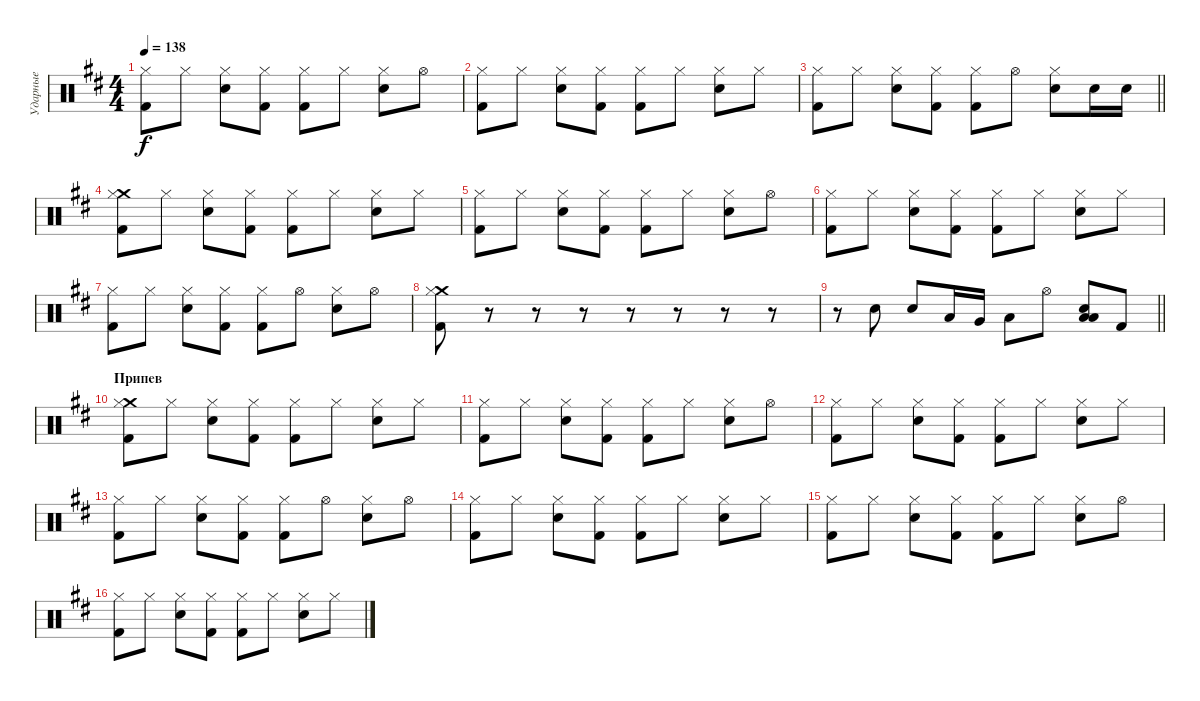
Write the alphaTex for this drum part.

\track ("Ударные" "Ударные") {instrument percussion}
\staff {score}
\articulation defaults
\ts (4 4)
\tempo 138
\clef neutral
\ks bminor
("Kick (hit) 2" "Hi-Hat (closed)").8{dy f} "Hi-Hat (closed)".8 ("Electric Snare (hit)" "Hi-Hat (closed)").8 ("Kick (hit) 2" "Hi-Hat (closed)").8 ("Kick (hit) 2" "Hi-Hat (closed)").8 "Hi-Hat (closed)".8 ("Electric Snare (hit)" "Hi-Hat (closed)").8 "Hi-Hat (open)".8 |
("Kick (hit) 2" "Hi-Hat (closed)").8 "Hi-Hat (closed)".8 ("Electric Snare (hit)" "Hi-Hat (closed)").8 ("Kick (hit) 2" "Hi-Hat (closed)").8 ("Kick (hit) 2" "Hi-Hat (closed)").8 "Hi-Hat (closed)".8 ("Electric Snare (hit)" "Hi-Hat (closed)").8 "Hi-Hat (closed)".8 |
\barLineRight lightlight
("Kick (hit) 2" "Hi-Hat (closed)").8 "Hi-Hat (closed)".8 ("Electric Snare (hit)" "Hi-Hat (closed)").8 ("Kick (hit) 2" "Hi-Hat (closed)").8 ("Kick (hit) 2" "Hi-Hat (closed)").8 "Hi-Hat (open)".8 ("Electric Snare (hit)" "Hi-Hat (closed)").8 "Electric Snare (hit)".16 "Electric Snare (hit)".16 |
\section ("" "")
("Crash medium (hit)" "Kick (hit) 2" "Hi-Hat (closed)").8 "Hi-Hat (closed)".8 ("Electric Snare (hit)" "Hi-Hat (closed)").8 ("Kick (hit) 2" "Hi-Hat (closed)").8 ("Kick (hit) 2" "Hi-Hat (closed)").8 "Hi-Hat (closed)".8 ("Electric Snare (hit)" "Hi-Hat (closed)").8 "Hi-Hat (closed)".8 |
("Kick (hit) 2" "Hi-Hat (closed)").8 "Hi-Hat (closed)".8 ("Electric Snare (hit)" "Hi-Hat (closed)").8 ("Kick (hit) 2" "Hi-Hat (closed)").8 ("Kick (hit) 2" "Hi-Hat (closed)").8 "Hi-Hat (closed)".8 ("Electric Snare (hit)" "Hi-Hat (closed)").8 "Hi-Hat (open)".8 |
("Kick (hit) 2" "Hi-Hat (closed)").8 "Hi-Hat (closed)".8 ("Electric Snare (hit)" "Hi-Hat (closed)").8 ("Kick (hit) 2" "Hi-Hat (closed)").8 ("Kick (hit) 2" "Hi-Hat (closed)").8 "Hi-Hat (closed)".8 ("Electric Snare (hit)" "Hi-Hat (closed)").8 "Hi-Hat (closed)".8 |
("Kick (hit) 2" "Hi-Hat (closed)").8 "Hi-Hat (closed)".8 ("Electric Snare (hit)" "Hi-Hat (closed)").8 ("Kick (hit) 2" "Hi-Hat (closed)").8 ("Kick (hit) 2" "Hi-Hat (closed)").8 "Hi-Hat (open)".8 ("Electric Snare (hit)" "Hi-Hat (closed)").8 "Hi-Hat (open)".8 |
("Crash medium (hit)" "Kick (hit) 2" "Hi-Hat (closed)").8 r.8 r.8 r.8 r.8 r.8 r.8 r.8 |
\barLineRight lightlight
r.8 "Electric Snare (hit)".8 "Electric Snare (hit)".8 "Low Tom (hit)".16 "Very Low Tom (hit)".16 "Low Floor Tom (hit)".8 "Hi-Hat (open)".8 ("Low Floor Tom (hit)" "Electric Snare (hit)" "Low Tom (hit)").8 "Kick (hit) 2".8 |
\section ("" "Припев")
("Crash medium (hit)" "Kick (hit) 2" "Hi-Hat (closed)").8 "Hi-Hat (closed)".8 ("Electric Snare (hit)" "Hi-Hat (closed)").8 ("Kick (hit) 2" "Hi-Hat (closed)").8 ("Kick (hit) 2" "Hi-Hat (closed)").8 "Hi-Hat (closed)".8 ("Electric Snare (hit)" "Hi-Hat (closed)").8 "Hi-Hat (closed)".8 |
("Kick (hit) 2" "Hi-Hat (closed)").8 "Hi-Hat (closed)".8 ("Electric Snare (hit)" "Hi-Hat (closed)").8 ("Kick (hit) 2" "Hi-Hat (closed)").8 ("Kick (hit) 2" "Hi-Hat (closed)").8 "Hi-Hat (closed)".8 ("Electric Snare (hit)" "Hi-Hat (closed)").8 "Hi-Hat (open)".8 |
("Kick (hit) 2" "Hi-Hat (closed)").8 "Hi-Hat (closed)".8 ("Electric Snare (hit)" "Hi-Hat (closed)").8 ("Kick (hit) 2" "Hi-Hat (closed)").8 ("Kick (hit) 2" "Hi-Hat (closed)").8 "Hi-Hat (closed)".8 ("Electric Snare (hit)" "Hi-Hat (closed)").8 "Hi-Hat (closed)".8 |
("Kick (hit) 2" "Hi-Hat (closed)").8 "Hi-Hat (closed)".8 ("Electric Snare (hit)" "Hi-Hat (closed)").8 ("Kick (hit) 2" "Hi-Hat (closed)").8 ("Kick (hit) 2" "Hi-Hat (closed)").8 "Hi-Hat (open)".8 ("Electric Snare (hit)" "Hi-Hat (closed)").8 "Hi-Hat (open)".8 |
("Kick (hit) 2" "Hi-Hat (closed)").8 "Hi-Hat (closed)".8 ("Electric Snare (hit)" "Hi-Hat (closed)").8 ("Kick (hit) 2" "Hi-Hat (closed)").8 ("Kick (hit) 2" "Hi-Hat (closed)").8 "Hi-Hat (closed)".8 ("Electric Snare (hit)" "Hi-Hat (closed)").8 "Hi-Hat (closed)".8 |
("Kick (hit) 2" "Hi-Hat (closed)").8 "Hi-Hat (closed)".8 ("Electric Snare (hit)" "Hi-Hat (closed)").8 ("Kick (hit) 2" "Hi-Hat (closed)").8 ("Kick (hit) 2" "Hi-Hat (closed)").8 "Hi-Hat (closed)".8 ("Electric Snare (hit)" "Hi-Hat (closed)").8 "Hi-Hat (open)".8 |
("Kick (hit) 2" "Hi-Hat (closed)").8 "Hi-Hat (closed)".8 ("Electric Snare (hit)" "Hi-Hat (closed)").8 ("Kick (hit) 2" "Hi-Hat (closed)").8 ("Kick (hit) 2" "Hi-Hat (closed)").8 "Hi-Hat (closed)".8 ("Electric Snare (hit)" "Hi-Hat (closed)").8 "Hi-Hat (closed)".8
